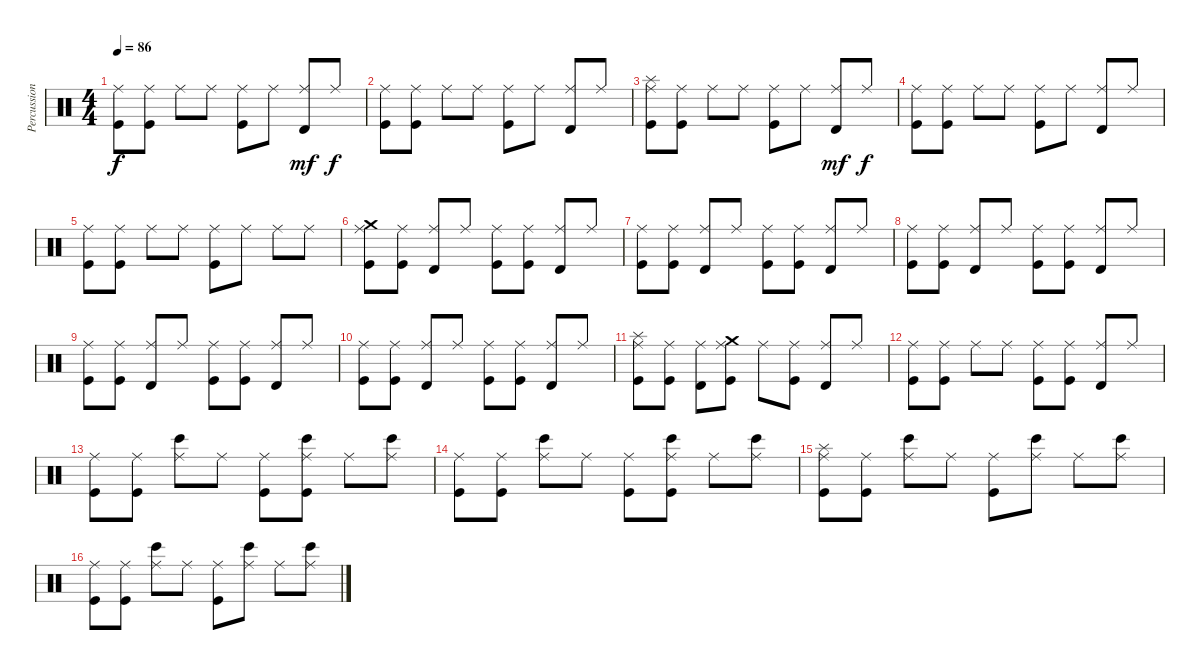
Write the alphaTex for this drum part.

\track ("Percussion" "Percussion") {instrument percussion}
\staff {score}
\articulation defaults
\ts (4 4)
\tempo 86
\clef neutral
\ks c
("Ride (middle)" "Kick (hit)").8{dy f} ("Ride (middle)" "Kick (hit)").8 "Ride (middle)".8 "Ride (middle)".8 ("Ride (middle)" "Kick (hit)").8 "Ride (middle)".8 ("Ride (middle)" "Timbale high (hit)").8{dy mf} "Ride (middle)".8{dy f} |
("Ride (middle)" "Kick (hit)").8 ("Ride (middle)" "Kick (hit)").8 "Ride (middle)".8 "Ride (middle)".8 ("Ride (middle)" "Kick (hit)").8 "Ride (middle)".8 ("Ride (middle)" "Timbale high (hit)").8 "Ride (middle)".8 |
("Ride (middle)" "Kick (hit)" "Splash (hit)").8 ("Ride (middle)" "Kick (hit)").8 "Ride (middle)".8 "Ride (middle)".8 ("Ride (middle)" "Kick (hit)").8 "Ride (middle)".8 ("Ride (middle)" "Timbale high (hit)").8{dy mf} "Ride (middle)".8{dy f} |
("Ride (middle)" "Kick (hit)").8 ("Ride (middle)" "Kick (hit)").8 "Ride (middle)".8 "Ride (middle)".8 ("Ride (middle)" "Kick (hit)").8 "Ride (middle)".8 ("Ride (middle)" "Timbale high (hit)").8 "Ride (middle)".8 |
("Ride (middle)" "Kick (hit)").8 ("Ride (middle)" "Kick (hit)").8 "Ride (middle)".8 "Ride (middle)".8 ("Ride (middle)" "Kick (hit)").8 "Ride (middle)".8 "Ride (middle)".8 "Ride (middle)".8 |
("Ride (middle)" "Kick (hit)" "Crash medium (hit)").8 ("Ride (middle)" "Kick (hit)").8 ("Ride (middle)" "Timbale high (hit)").8 "Ride (middle)".8 ("Ride (middle)" "Kick (hit)").8 ("Ride (middle)" "Kick (hit)").8 ("Ride (middle)" "Timbale high (hit)").8 "Ride (middle)".8 |
("Ride (middle)" "Kick (hit)").8 ("Ride (middle)" "Kick (hit)").8 ("Ride (middle)" "Timbale high (hit)").8 "Ride (middle)".8 ("Ride (middle)" "Kick (hit)").8 ("Ride (middle)" "Kick (hit)").8 ("Ride (middle)" "Timbale high (hit)").8 "Ride (middle)".8 |
("Ride (middle)" "Kick (hit)").8 ("Ride (middle)" "Kick (hit)").8 ("Ride (middle)" "Timbale high (hit)").8 "Ride (middle)".8 ("Ride (middle)" "Kick (hit)").8 ("Ride (middle)" "Kick (hit)").8 ("Ride (middle)" "Timbale high (hit)").8 "Ride (middle)".8 |
("Ride (middle)" "Kick (hit)").8 ("Ride (middle)" "Kick (hit)").8 ("Ride (middle)" "Timbale high (hit)").8 "Ride (middle)".8 ("Ride (middle)" "Kick (hit)").8 ("Ride (middle)" "Kick (hit)").8 ("Ride (middle)" "Timbale high (hit)").8 "Ride (middle)".8 |
("Ride (middle)" "Kick (hit)").8 ("Ride (middle)" "Kick (hit)").8 ("Ride (middle)" "Timbale high (hit)").8 "Ride (middle)".8 ("Ride (middle)" "Kick (hit)").8 ("Ride (middle)" "Kick (hit)").8 ("Ride (middle)" "Timbale high (hit)").8 "Ride (middle)".8 |
("Ride (middle)" "Kick (hit)" "Splash (hit)").8 ("Ride (middle)" "Kick (hit)").8 ("Ride (middle)" "Timbale high (hit)").8 ("Ride (middle)" "Kick (hit)" "Crash medium (hit)").8 "Ride (middle)".8 ("Ride (middle)" "Kick (hit)").8 ("Ride (middle)" "Timbale high (hit)").8 "Ride (middle)".8 |
("Ride (middle)" "Kick (hit)").8 ("Ride (middle)" "Kick (hit)").8 "Ride (middle)".8 "Ride (middle)".8 ("Ride (middle)" "Kick (hit)").8 ("Ride (middle)" "Kick (hit)").8 ("Ride (middle)" "Timbale high (hit)").8 "Ride (middle)".8 |
("Ride (middle)" "Kick (hit)").8 ("Ride (middle)" "Kick (hit)").8 ("Ride (middle)" "Bongo High (hit)").8 "Ride (middle)".8 ("Ride (middle)" "Kick (hit)").8 ("Ride (middle)" "Kick (hit)" "Bongo High (hit)").8 "Ride (middle)".8 ("Ride (middle)" "Bongo High (hit)").8 |
("Ride (middle)" "Kick (hit)").8 ("Ride (middle)" "Kick (hit)").8 ("Ride (middle)" "Bongo High (hit)").8 "Ride (middle)".8 ("Ride (middle)" "Kick (hit)").8 ("Ride (middle)" "Kick (hit)" "Bongo High (hit)").8 "Ride (middle)".8 ("Ride (middle)" "Bongo High (hit)").8 |
("Ride (middle)" "Kick (hit)" "Splash (hit)").8 ("Ride (middle)" "Kick (hit)").8 ("Ride (middle)" "Bongo High (hit)").8 "Ride (middle)".8 ("Ride (middle)" "Kick (hit)").8 ("Ride (middle)" "Bongo High (hit)").8 "Ride (middle)".8 ("Ride (middle)" "Bongo High (hit)").8 |
("Ride (middle)" "Kick (hit)").8 ("Ride (middle)" "Kick (hit)").8 ("Ride (middle)" "Bongo High (hit)").8 "Ride (middle)".8 ("Ride (middle)" "Kick (hit)").8 ("Ride (middle)" "Bongo High (hit)").8 "Ride (middle)".8 ("Ride (middle)" "Bongo High (hit)").8
